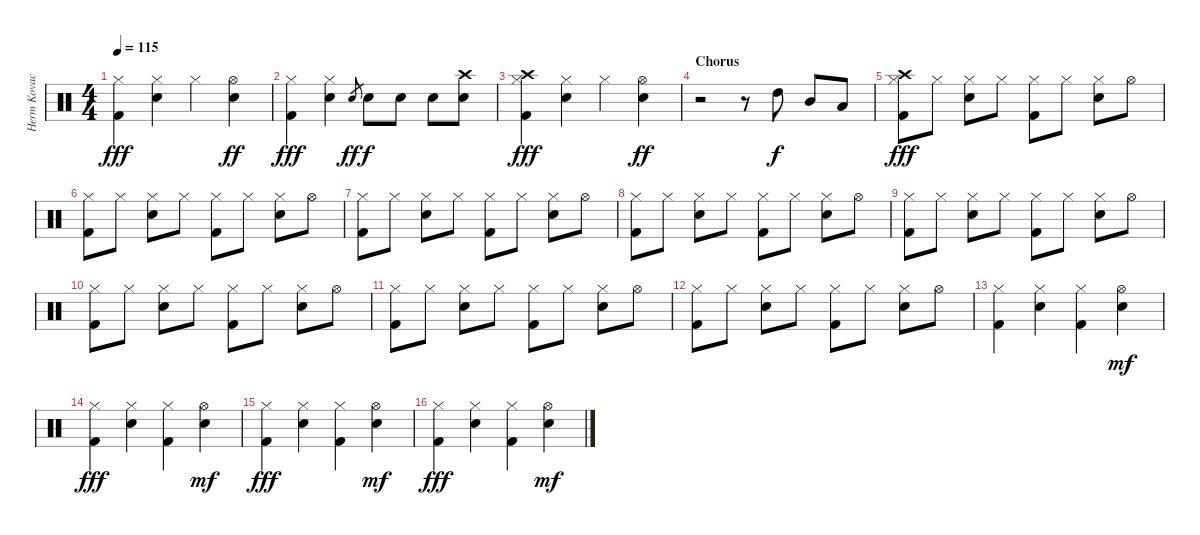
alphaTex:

\track ("Herm Kovacs" "Herm Kovac") {instrument percussion}
\staff {score}
\articulation defaults
\ts (4 4)
\tempo 115
\clef neutral
\ks c
("Hi-Hat (closed)" "Kick (hit) 2").4{dy fff} ("Hi-Hat (closed)" "Electric Snare (hit)").4 "Hi-Hat (closed)".4 ("Hi-Hat (open)" "Electric Snare (hit)").4{dy ff} |
("Hi-Hat (closed)" "Kick (hit) 2").4{dy fff} ("Hi-Hat (closed)" "Electric Snare (hit)").4 "Electric Snare (hit)".8{gr dy ff} "Electric Snare (hit)".8{dy f} "Electric Snare (hit)".8 "Electric Snare (hit)".8 ("Crash high (hit)" "Electric Snare (hit)").8 |
("Crash high (hit)" "Hi-Hat (closed)" "Kick (hit) 2").4{dy fff} ("Hi-Hat (closed)" "Electric Snare (hit)").4 "Hi-Hat (closed)".4 ("Hi-Hat (open)" "Electric Snare (hit)").4{dy ff} |
\section ("" "Chorus")
r.2 r.8 "High Tom (hit)".8{dy f} "Mid Tom (hit)".8 "Low Tom (hit)".8 |
("Crash high (hit)" "Hi-Hat (closed)" "Kick (hit) 2").8{dy fff} "Hi-Hat (closed)".8 ("Hi-Hat (closed)" "Electric Snare (hit)").8 "Hi-Hat (closed)".8 ("Hi-Hat (closed)" "Kick (hit) 2").8 "Hi-Hat (closed)".8 ("Hi-Hat (closed)" "Electric Snare (hit)").8 "Hi-Hat (open)".8 |
("Hi-Hat (closed)" "Kick (hit) 2").8 "Hi-Hat (closed)".8 ("Hi-Hat (closed)" "Electric Snare (hit)").8 "Hi-Hat (closed)".8 ("Hi-Hat (closed)" "Kick (hit) 2").8 "Hi-Hat (closed)".8 ("Hi-Hat (closed)" "Electric Snare (hit)").8 "Hi-Hat (open)".8 |
("Hi-Hat (closed)" "Kick (hit) 2").8 "Hi-Hat (closed)".8 ("Hi-Hat (closed)" "Electric Snare (hit)").8 "Hi-Hat (closed)".8 ("Hi-Hat (closed)" "Kick (hit) 2").8 "Hi-Hat (closed)".8 ("Hi-Hat (closed)" "Electric Snare (hit)").8 "Hi-Hat (open)".8 |
("Hi-Hat (closed)" "Kick (hit) 2").8 "Hi-Hat (closed)".8 ("Hi-Hat (closed)" "Electric Snare (hit)").8 "Hi-Hat (closed)".8 ("Hi-Hat (closed)" "Kick (hit) 2").8 "Hi-Hat (closed)".8 ("Hi-Hat (closed)" "Electric Snare (hit)").8 "Hi-Hat (open)".8 |
("Hi-Hat (closed)" "Kick (hit) 2").8 "Hi-Hat (closed)".8 ("Hi-Hat (closed)" "Electric Snare (hit)").8 "Hi-Hat (closed)".8 ("Hi-Hat (closed)" "Kick (hit) 2").8 "Hi-Hat (closed)".8 ("Hi-Hat (closed)" "Electric Snare (hit)").8 "Hi-Hat (open)".8 |
("Hi-Hat (closed)" "Kick (hit) 2").8 "Hi-Hat (closed)".8 ("Hi-Hat (closed)" "Electric Snare (hit)").8 "Hi-Hat (closed)".8 ("Hi-Hat (closed)" "Kick (hit) 2").8 "Hi-Hat (closed)".8 ("Hi-Hat (closed)" "Electric Snare (hit)").8 "Hi-Hat (open)".8 |
("Hi-Hat (closed)" "Kick (hit) 2").8 "Hi-Hat (closed)".8 ("Hi-Hat (closed)" "Electric Snare (hit)").8 "Hi-Hat (closed)".8 ("Hi-Hat (closed)" "Kick (hit) 2").8 "Hi-Hat (closed)".8 ("Hi-Hat (closed)" "Electric Snare (hit)").8 "Hi-Hat (open)".8 |
("Hi-Hat (closed)" "Kick (hit) 2").8 "Hi-Hat (closed)".8 ("Hi-Hat (closed)" "Electric Snare (hit)").8 "Hi-Hat (closed)".8 ("Hi-Hat (closed)" "Kick (hit) 2").8 "Hi-Hat (closed)".8 ("Hi-Hat (closed)" "Electric Snare (hit)").8 "Hi-Hat (open)".8 |
("Hi-Hat (closed)" "Kick (hit) 2").4 ("Hi-Hat (closed)" "Electric Snare (hit)").4 ("Hi-Hat (closed)" "Kick (hit) 2").4 ("Hi-Hat (open)" "Electric Snare (hit)").4{dy mf} |
("Hi-Hat (closed)" "Kick (hit) 2").4{dy fff} ("Hi-Hat (closed)" "Electric Snare (hit)").4 ("Hi-Hat (closed)" "Kick (hit) 2").4 ("Hi-Hat (open)" "Electric Snare (hit)").4{dy mf} |
("Hi-Hat (closed)" "Kick (hit) 2").4{dy fff} ("Hi-Hat (closed)" "Electric Snare (hit)").4 ("Hi-Hat (closed)" "Kick (hit) 2").4 ("Hi-Hat (open)" "Electric Snare (hit)").4{dy mf} |
("Hi-Hat (closed)" "Kick (hit) 2").4{dy fff} ("Hi-Hat (closed)" "Electric Snare (hit)").4 ("Hi-Hat (closed)" "Kick (hit) 2").4 ("Hi-Hat (open)" "Electric Snare (hit)").4{dy mf}
